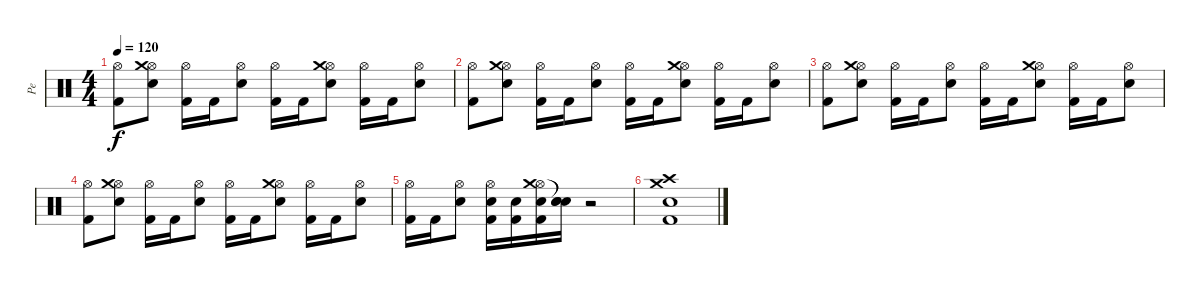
\track ("Pe" "Pe") {instrument percussion}
\staff {score}
\articulation defaults
\ts (4 4)
\tempo 120
\clef neutral
\ks c
("Hi-Hat (open)" "Kick (hit) 2").8{dy f} ("Hi-Hat (open)" "Crash medium (hit)" "Electric Snare (hit)").8 ("Hi-Hat (open)" "Kick (hit) 2").16 "Kick (hit) 2".16 ("Hi-Hat (open)" "Electric Snare (hit)").8 ("Hi-Hat (open)" "Kick (hit) 2").16 "Kick (hit) 2".16 ("Hi-Hat (open)" "Crash medium (hit)" "Electric Snare (hit)").8 ("Hi-Hat (open)" "Kick (hit) 2").16 "Kick (hit) 2".16 ("Hi-Hat (open)" "Electric Snare (hit)").8 |
("Hi-Hat (open)" "Kick (hit) 2").8 ("Hi-Hat (open)" "Crash medium (hit)" "Electric Snare (hit)").8 ("Hi-Hat (open)" "Kick (hit) 2").16 "Kick (hit) 2".16 ("Hi-Hat (open)" "Electric Snare (hit)").8 ("Hi-Hat (open)" "Kick (hit) 2").16 "Kick (hit) 2".16 ("Hi-Hat (open)" "Crash medium (hit)" "Electric Snare (hit)").8 ("Hi-Hat (open)" "Kick (hit) 2").16 "Kick (hit) 2".16 ("Hi-Hat (open)" "Electric Snare (hit)").8 |
("Hi-Hat (open)" "Kick (hit) 2").8 ("Hi-Hat (open)" "Crash medium (hit)" "Electric Snare (hit)").8 ("Hi-Hat (open)" "Kick (hit) 2").16 "Kick (hit) 2".16 ("Hi-Hat (open)" "Electric Snare (hit)").8 ("Hi-Hat (open)" "Kick (hit) 2").16 "Kick (hit) 2".16 ("Hi-Hat (open)" "Crash medium (hit)" "Electric Snare (hit)").8 ("Hi-Hat (open)" "Kick (hit) 2").16 "Kick (hit) 2".16 ("Hi-Hat (open)" "Electric Snare (hit)").8 |
("Hi-Hat (open)" "Kick (hit) 2").8 ("Hi-Hat (open)" "Crash medium (hit)" "Electric Snare (hit)").8 ("Hi-Hat (open)" "Kick (hit) 2").16 "Kick (hit) 2".16 ("Hi-Hat (open)" "Electric Snare (hit)").8 ("Hi-Hat (open)" "Kick (hit) 2").16 "Kick (hit) 2".16 ("Hi-Hat (open)" "Crash medium (hit)" "Electric Snare (hit)").8 ("Hi-Hat (open)" "Kick (hit) 2").16 "Kick (hit) 2".16 ("Hi-Hat (open)" "Electric Snare (hit)").8 |
("Hi-Hat (open)" "Kick (hit) 2").16 "Kick (hit) 2".16 ("Hi-Hat (open)" "Electric Snare (hit)").8 ("Hi-Hat (open)" "Electric Snare (hit)" "Kick (hit) 2").16 ("Electric Snare (hit)" "Kick (hit) 2").16 ("Hi-Hat (open)" "Crash medium (hit)" "Electric Snare (hit)" "Kick (hit) 2").16 ("Snare (hit)"{t} "Snare (hit)"{t} "Electric Snare (hit)").16 r.2 |
("Crash high (hit)" "Crash medium (hit)" "Electric Snare (hit)" "Kick (hit) 2").1
